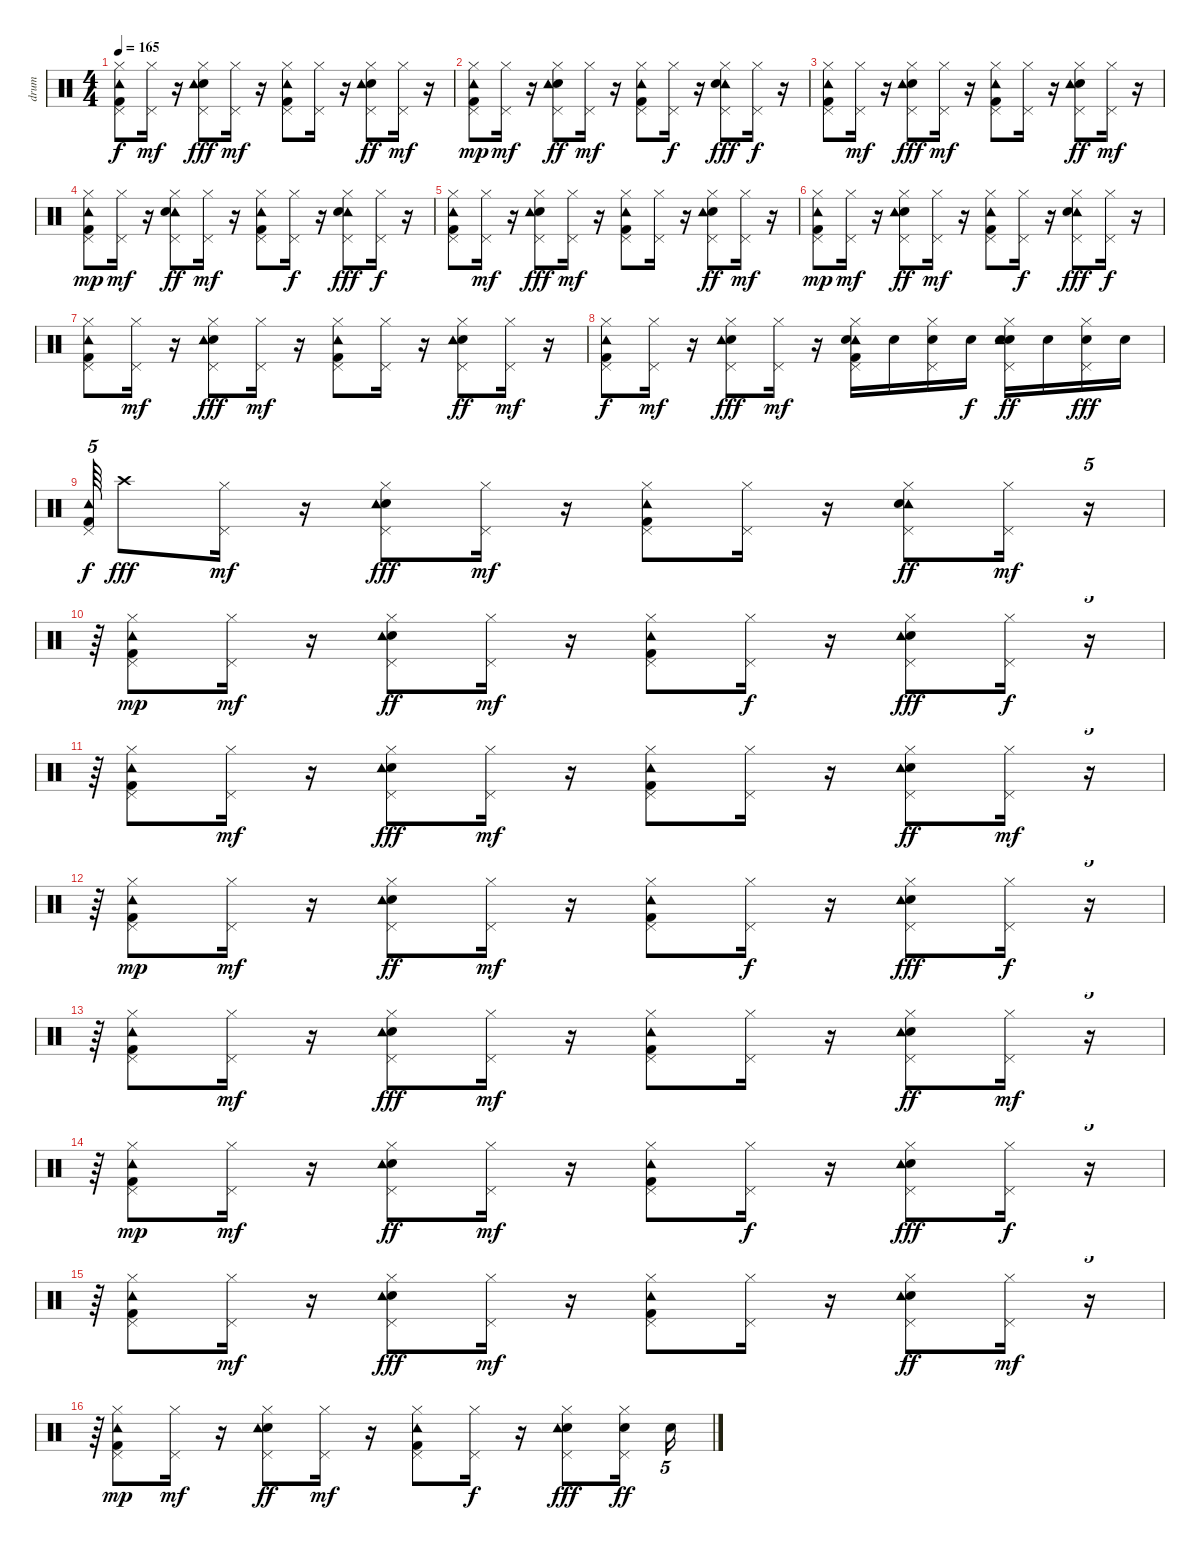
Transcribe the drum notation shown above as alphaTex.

\track ("drum" "drum") {instrument percussion}
\staff {score}
\articulation defaults
\ts (4 4)
\tempo 165
\clef neutral
\ks c
("Hi-Hat (closed)" "Pedal Hi-Hat (hit)" "Kick (hit) 2" "Tambourine (hit)").8{dy f} ("Hi-Hat (closed)" "Pedal Hi-Hat (hit)").16{dy mf} r.16 ("Hi-Hat (closed)" "Pedal Hi-Hat (hit)" "Electric Snare (hit)" "Tambourine (hit)").8{dy fff} ("Hi-Hat (closed)" "Pedal Hi-Hat (hit)").16{dy mf} r.16 ("Hi-Hat (closed)" "Pedal Hi-Hat (hit)" "Kick (hit) 2" "Tambourine (hit)").8 ("Hi-Hat (closed)" "Pedal Hi-Hat (hit)").16 r.16 ("Hi-Hat (closed)" "Pedal Hi-Hat (hit)" "Electric Snare (hit)" "Tambourine (hit)").8{dy ff} ("Hi-Hat (closed)" "Pedal Hi-Hat (hit)").16{dy mf} r.16 |
("Hi-Hat (closed)" "Pedal Hi-Hat (hit)" "Kick (hit) 2" "Tambourine (hit)").8{dy mp} ("Hi-Hat (closed)" "Pedal Hi-Hat (hit)").16{dy mf} r.16 ("Hi-Hat (closed)" "Pedal Hi-Hat (hit)" "Electric Snare (hit)" "Tambourine (hit)").8{dy ff} ("Hi-Hat (closed)" "Pedal Hi-Hat (hit)").16{dy mf} r.16 ("Hi-Hat (closed)" "Tambourine (hit)" "Pedal Hi-Hat (hit)" "Kick (hit) 2").8 ("Hi-Hat (closed)" "Pedal Hi-Hat (hit)").16{dy f} r.16 ("Hi-Hat (closed)" "Tambourine (hit)" "Pedal Hi-Hat (hit)" "Electric Snare (hit)").8{dy fff} ("Hi-Hat (closed)" "Pedal Hi-Hat (hit)").16{dy f} r.16 |
("Hi-Hat (closed)" "Pedal Hi-Hat (hit)" "Kick (hit) 2" "Tambourine (hit)").8 ("Hi-Hat (closed)" "Pedal Hi-Hat (hit)").16{dy mf} r.16 ("Hi-Hat (closed)" "Pedal Hi-Hat (hit)" "Electric Snare (hit)" "Tambourine (hit)").8{dy fff} ("Hi-Hat (closed)" "Pedal Hi-Hat (hit)").16{dy mf} r.16 ("Hi-Hat (closed)" "Pedal Hi-Hat (hit)" "Kick (hit) 2" "Tambourine (hit)").8 ("Hi-Hat (closed)" "Pedal Hi-Hat (hit)").16 r.16 ("Hi-Hat (closed)" "Pedal Hi-Hat (hit)" "Electric Snare (hit)" "Tambourine (hit)").8{dy ff} ("Hi-Hat (closed)" "Pedal Hi-Hat (hit)").16{dy mf} r.16 |
("Hi-Hat (closed)" "Pedal Hi-Hat (hit)" "Kick (hit) 2" "Tambourine (hit)").8{dy mp} ("Hi-Hat (closed)" "Pedal Hi-Hat (hit)").16{dy mf} r.16 ("Hi-Hat (closed)" "Tambourine (hit)" "Pedal Hi-Hat (hit)" "Electric Snare (hit)").8{dy ff} ("Hi-Hat (closed)" "Pedal Hi-Hat (hit)").16{dy mf} r.16 ("Hi-Hat (closed)" "Pedal Hi-Hat (hit)" "Kick (hit) 2" "Tambourine (hit)").8 ("Hi-Hat (closed)" "Pedal Hi-Hat (hit)").16{dy f} r.16 ("Hi-Hat (closed)" "Tambourine (hit)" "Pedal Hi-Hat (hit)" "Electric Snare (hit)").8{dy fff} ("Hi-Hat (closed)" "Pedal Hi-Hat (hit)").16{dy f} r.16 |
("Hi-Hat (closed)" "Pedal Hi-Hat (hit)" "Kick (hit) 2" "Tambourine (hit)").8 ("Hi-Hat (closed)" "Pedal Hi-Hat (hit)").16{dy mf} r.16 ("Hi-Hat (closed)" "Pedal Hi-Hat (hit)" "Electric Snare (hit)" "Tambourine (hit)").8{dy fff} ("Hi-Hat (closed)" "Pedal Hi-Hat (hit)").16{dy mf} r.16 ("Hi-Hat (closed)" "Pedal Hi-Hat (hit)" "Kick (hit) 2" "Tambourine (hit)").8 ("Hi-Hat (closed)" "Pedal Hi-Hat (hit)").16 r.16 ("Hi-Hat (closed)" "Pedal Hi-Hat (hit)" "Electric Snare (hit)" "Tambourine (hit)").8{dy ff} ("Hi-Hat (closed)" "Pedal Hi-Hat (hit)").16{dy mf} r.16 |
("Hi-Hat (closed)" "Pedal Hi-Hat (hit)" "Kick (hit) 2" "Tambourine (hit)").8{dy mp} ("Hi-Hat (closed)" "Pedal Hi-Hat (hit)").16{dy mf} r.16 ("Hi-Hat (closed)" "Pedal Hi-Hat (hit)" "Electric Snare (hit)" "Tambourine (hit)").8{dy ff} ("Hi-Hat (closed)" "Pedal Hi-Hat (hit)").16{dy mf} r.16 ("Hi-Hat (closed)" "Pedal Hi-Hat (hit)" "Kick (hit) 2" "Tambourine (hit)").8 ("Hi-Hat (closed)" "Pedal Hi-Hat (hit)").16{dy f} r.16 ("Hi-Hat (closed)" "Tambourine (hit)" "Pedal Hi-Hat (hit)" "Electric Snare (hit)").8{dy fff} ("Hi-Hat (closed)" "Pedal Hi-Hat (hit)").16{dy f} r.16 |
("Hi-Hat (closed)" "Pedal Hi-Hat (hit)" "Kick (hit) 2" "Tambourine (hit)").8 ("Hi-Hat (closed)" "Pedal Hi-Hat (hit)").16{dy mf} r.16 ("Hi-Hat (closed)" "Pedal Hi-Hat (hit)" "Electric Snare (hit)" "Tambourine (hit)").8{dy fff} ("Hi-Hat (closed)" "Pedal Hi-Hat (hit)").16{dy mf} r.16 ("Hi-Hat (closed)" "Pedal Hi-Hat (hit)" "Kick (hit) 2" "Tambourine (hit)").8 ("Hi-Hat (closed)" "Pedal Hi-Hat (hit)").16 r.16 ("Hi-Hat (closed)" "Pedal Hi-Hat (hit)" "Electric Snare (hit)" "Tambourine (hit)").8{dy ff} ("Hi-Hat (closed)" "Pedal Hi-Hat (hit)").16{dy mf} r.16 |
("Hi-Hat (closed)" "Pedal Hi-Hat (hit)" "Kick (hit) 2" "Tambourine (hit)").8{dy f} ("Hi-Hat (closed)" "Pedal Hi-Hat (hit)").16{dy mf} r.16 ("Hi-Hat (closed)" "Pedal Hi-Hat (hit)" "Electric Snare (hit)" "Tambourine (hit)").8{dy fff} ("Hi-Hat (closed)" "Pedal Hi-Hat (hit)").16{dy mf} r.16 ("Hi-Hat (closed)" "Pedal Hi-Hat (hit)" "Kick (hit) 2" "Tambourine (hit)" "Electric Snare (hit)").16 "Electric Snare (hit)".16 ("Hi-Hat (closed)" "Pedal Hi-Hat (hit)" "Electric Snare (hit)").16 "Electric Snare (hit)".16{dy f} ("Hi-Hat (closed)" "Pedal Hi-Hat (hit)" "Electric Snare (hit)" "Tambourine (hit)" "Electric Snare (hit)").16{dy ff} "Electric Snare (hit)".16 ("Hi-Hat (closed)" "Pedal Hi-Hat (hit)" "Electric Snare (hit)").16{dy fff} "Electric Snare (hit)".16 |
("Pedal Hi-Hat (hit)" "Kick (hit) 2" "Tambourine (hit)").64{tu (5 4) dy f} "Crash high (hit)".8{dy fff} ("Hi-Hat (closed)" "Pedal Hi-Hat (hit)").16{dy mf} r.16 ("Hi-Hat (closed)" "Pedal Hi-Hat (hit)" "Electric Snare (hit)" "Tambourine (hit)").8{dy fff} ("Hi-Hat (closed)" "Pedal Hi-Hat (hit)").16{dy mf} r.16 ("Hi-Hat (closed)" "Pedal Hi-Hat (hit)" "Kick (hit) 2" "Tambourine (hit)").8 ("Hi-Hat (closed)" "Pedal Hi-Hat (hit)").16 r.16 ("Hi-Hat (closed)" "Tambourine (hit)" "Pedal Hi-Hat (hit)" "Electric Snare (hit)").8{dy ff} ("Hi-Hat (closed)" "Pedal Hi-Hat (hit)").16{dy mf} r.16{tu (5 4)} |
r.64{tu (5 4)} ("Hi-Hat (closed)" "Tambourine (hit)" "Pedal Hi-Hat (hit)" "Kick (hit) 2").8{dy mp} ("Hi-Hat (closed)" "Pedal Hi-Hat (hit)").16{dy mf} r.16 ("Hi-Hat (closed)" "Pedal Hi-Hat (hit)" "Electric Snare (hit)" "Tambourine (hit)").8{dy ff} ("Hi-Hat (closed)" "Pedal Hi-Hat (hit)").16{dy mf} r.16 ("Hi-Hat (closed)" "Pedal Hi-Hat (hit)" "Kick (hit) 2" "Tambourine (hit)").8 ("Hi-Hat (closed)" "Pedal Hi-Hat (hit)").16{dy f} r.16 ("Hi-Hat (closed)" "Pedal Hi-Hat (hit)" "Electric Snare (hit)" "Tambourine (hit)").8{dy fff} ("Hi-Hat (closed)" "Pedal Hi-Hat (hit)").16{dy f} r.16{tu (5 4)} |
r.64{tu (5 4)} ("Hi-Hat (closed)" "Pedal Hi-Hat (hit)" "Kick (hit) 2" "Tambourine (hit)").8 ("Hi-Hat (closed)" "Pedal Hi-Hat (hit)").16{dy mf} r.16 ("Hi-Hat (closed)" "Pedal Hi-Hat (hit)" "Electric Snare (hit)" "Tambourine (hit)").8{dy fff} ("Hi-Hat (closed)" "Pedal Hi-Hat (hit)").16{dy mf} r.16 ("Hi-Hat (closed)" "Pedal Hi-Hat (hit)" "Kick (hit) 2" "Tambourine (hit)").8 ("Hi-Hat (closed)" "Pedal Hi-Hat (hit)").16 r.16 ("Hi-Hat (closed)" "Pedal Hi-Hat (hit)" "Electric Snare (hit)" "Tambourine (hit)").8{dy ff} ("Hi-Hat (closed)" "Pedal Hi-Hat (hit)").16{dy mf} r.16{tu (5 4)} |
r.64{tu (5 4)} ("Hi-Hat (closed)" "Pedal Hi-Hat (hit)" "Kick (hit) 2" "Tambourine (hit)").8{dy mp} ("Hi-Hat (closed)" "Pedal Hi-Hat (hit)").16{dy mf} r.16 ("Hi-Hat (closed)" "Pedal Hi-Hat (hit)" "Electric Snare (hit)" "Tambourine (hit)").8{dy ff} ("Hi-Hat (closed)" "Pedal Hi-Hat (hit)").16{dy mf} r.16 ("Hi-Hat (closed)" "Pedal Hi-Hat (hit)" "Kick (hit) 2" "Tambourine (hit)").8 ("Hi-Hat (closed)" "Pedal Hi-Hat (hit)").16{dy f} r.16 ("Hi-Hat (closed)" "Pedal Hi-Hat (hit)" "Electric Snare (hit)" "Tambourine (hit)").8{dy fff} ("Hi-Hat (closed)" "Pedal Hi-Hat (hit)").16{dy f} r.16{tu (5 4)} |
r.64{tu (5 4)} ("Hi-Hat (closed)" "Pedal Hi-Hat (hit)" "Kick (hit) 2" "Tambourine (hit)").8 ("Hi-Hat (closed)" "Pedal Hi-Hat (hit)").16{dy mf} r.16 ("Hi-Hat (closed)" "Pedal Hi-Hat (hit)" "Electric Snare (hit)" "Tambourine (hit)").8{dy fff} ("Hi-Hat (closed)" "Pedal Hi-Hat (hit)").16{dy mf} r.16 ("Hi-Hat (closed)" "Pedal Hi-Hat (hit)" "Kick (hit) 2" "Tambourine (hit)").8 ("Hi-Hat (closed)" "Pedal Hi-Hat (hit)").16 r.16 ("Hi-Hat (closed)" "Pedal Hi-Hat (hit)" "Electric Snare (hit)" "Tambourine (hit)").8{dy ff} ("Hi-Hat (closed)" "Pedal Hi-Hat (hit)").16{dy mf} r.16{tu (5 4)} |
r.64{tu (5 4)} ("Hi-Hat (closed)" "Pedal Hi-Hat (hit)" "Kick (hit) 2" "Tambourine (hit)").8{dy mp} ("Hi-Hat (closed)" "Pedal Hi-Hat (hit)").16{dy mf} r.16 ("Hi-Hat (closed)" "Pedal Hi-Hat (hit)" "Electric Snare (hit)" "Tambourine (hit)").8{dy ff} ("Hi-Hat (closed)" "Pedal Hi-Hat (hit)").16{dy mf} r.16 ("Hi-Hat (closed)" "Pedal Hi-Hat (hit)" "Kick (hit) 2" "Tambourine (hit)").8 ("Hi-Hat (closed)" "Pedal Hi-Hat (hit)").16{dy f} r.16 ("Hi-Hat (closed)" "Pedal Hi-Hat (hit)" "Electric Snare (hit)" "Tambourine (hit)").8{dy fff} ("Hi-Hat (closed)" "Pedal Hi-Hat (hit)").16{dy f} r.16{tu (5 4)} |
r.64{tu (5 4)} ("Hi-Hat (closed)" "Pedal Hi-Hat (hit)" "Kick (hit) 2" "Tambourine (hit)").8 ("Hi-Hat (closed)" "Pedal Hi-Hat (hit)").16{dy mf} r.16 ("Hi-Hat (closed)" "Pedal Hi-Hat (hit)" "Electric Snare (hit)" "Tambourine (hit)").8{dy fff} ("Hi-Hat (closed)" "Pedal Hi-Hat (hit)").16{dy mf} r.16 ("Hi-Hat (closed)" "Pedal Hi-Hat (hit)" "Kick (hit) 2" "Tambourine (hit)").8 ("Hi-Hat (closed)" "Pedal Hi-Hat (hit)").16 r.16 ("Hi-Hat (closed)" "Pedal Hi-Hat (hit)" "Electric Snare (hit)" "Tambourine (hit)").8{dy ff} ("Hi-Hat (closed)" "Pedal Hi-Hat (hit)").16{dy mf} r.16{tu (5 4)} |
r.64{tu (5 4)} ("Hi-Hat (closed)" "Pedal Hi-Hat (hit)" "Kick (hit) 2" "Tambourine (hit)").8{dy mp} ("Hi-Hat (closed)" "Pedal Hi-Hat (hit)").16{dy mf} r.16 ("Hi-Hat (closed)" "Pedal Hi-Hat (hit)" "Electric Snare (hit)" "Tambourine (hit)").8{dy ff} ("Hi-Hat (closed)" "Pedal Hi-Hat (hit)").16{dy mf} r.16 ("Hi-Hat (closed)" "Pedal Hi-Hat (hit)" "Kick (hit) 2" "Tambourine (hit)").8 ("Hi-Hat (closed)" "Pedal Hi-Hat (hit)").16{dy f} r.16 ("Hi-Hat (closed)" "Pedal Hi-Hat (hit)" "Electric Snare (hit)" "Tambourine (hit)").8{dy fff} ("Hi-Hat (closed)" "Pedal Hi-Hat (hit)" "Electric Snare (hit)").16{dy ff} "Electric Snare (hit)".16{tu (5 4)}
